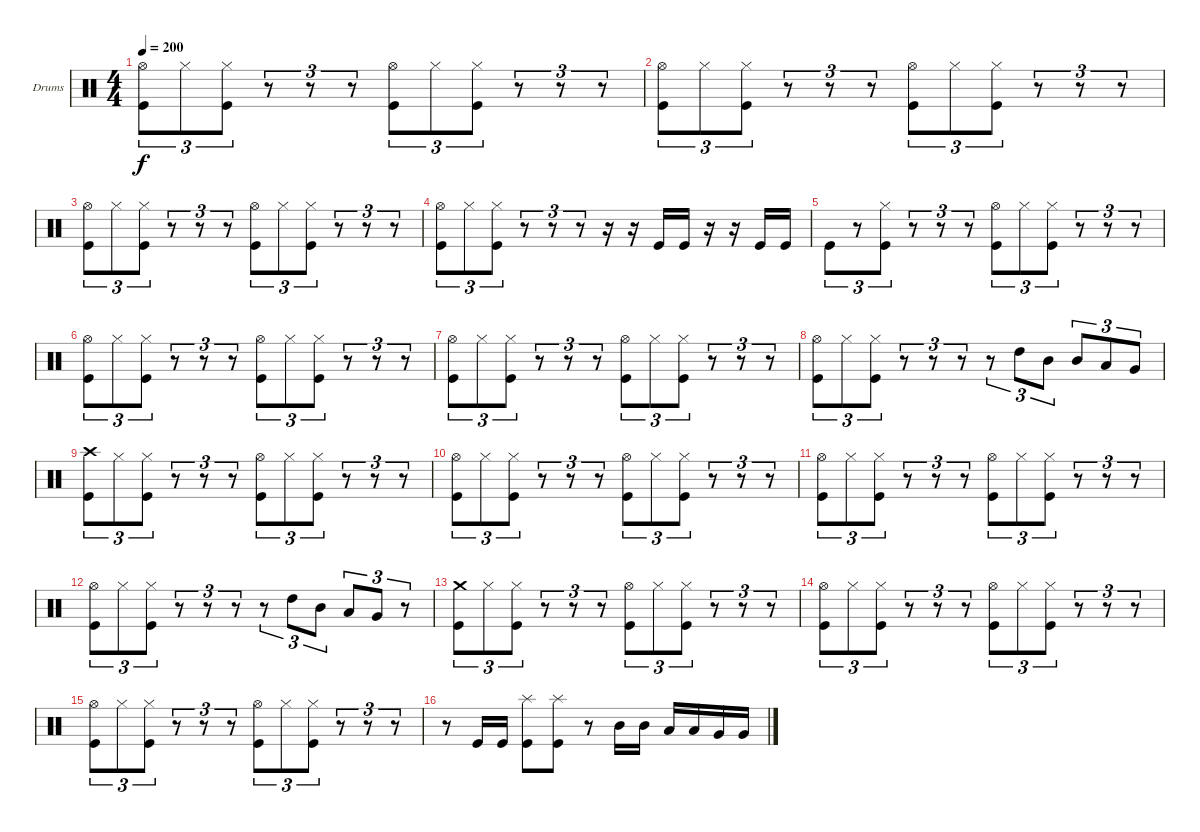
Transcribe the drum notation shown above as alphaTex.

\bracketExtendMode groupsimilarinstruments
\firstSystemTrackNameOrientation horizontal
\otherSystemsTrackNameOrientation horizontal
\track ("Drumkit" "Drums") {instrument percussion}
\staff {score}
\articulation defaults
\ts (4 4)
\tempo 200
\clef neutral
\scale
0.333333
\ks c
("Kick (hit)" "Hi-Hat (open)").8{tu (3 2) dy f} "Hi-Hat (closed)".8{tu (3 2)} ("Kick (hit)" "Hi-Hat (closed)").8{tu (3 2)} r.8{tu (3 2)} r.8{tu (3 2)} r.8{tu (3 2)} ("Kick (hit)" "Hi-Hat (open)").8{tu (3 2)} "Hi-Hat (closed)".8{tu (3 2)} ("Kick (hit)" "Hi-Hat (closed)").8{tu (3 2)} r.8{tu (3 2)} r.8{tu (3 2)} r.8{tu (3 2)} |
\scale
0.333333 ("Kick (hit)" "Hi-Hat (open)").8{tu (3 2)} "Hi-Hat (closed)".8{tu (3 2)} ("Kick (hit)" "Hi-Hat (closed)").8{tu (3 2)} r.8{tu (3 2)} r.8{tu (3 2)} r.8{tu (3 2)} ("Kick (hit)" "Hi-Hat (open)").8{tu (3 2)} "Hi-Hat (closed)".8{tu (3 2)} ("Kick (hit)" "Hi-Hat (closed)").8{tu (3 2)} r.8{tu (3 2)} r.8{tu (3 2)} r.8{tu (3 2)} |
\scale
0.333333 ("Kick (hit)" "Hi-Hat (open)").8{tu (3 2)} "Hi-Hat (closed)".8{tu (3 2)} ("Kick (hit)" "Hi-Hat (closed)").8{tu (3 2)} r.8{tu (3 2)} r.8{tu (3 2)} r.8{tu (3 2)} ("Kick (hit)" "Hi-Hat (open)").8{tu (3 2)} "Hi-Hat (closed)".8{tu (3 2)} ("Kick (hit)" "Hi-Hat (closed)").8{tu (3 2)} r.8{tu (3 2)} r.8{tu (3 2)} r.8{tu (3 2)} |
\scale
0.333333 ("Kick (hit)" "Hi-Hat (open)").8{tu (3 2)} "Hi-Hat (closed)".8{tu (3 2)} ("Kick (hit)" "Hi-Hat (closed)").8{tu (3 2)} r.8{tu (3 2)} r.8{tu (3 2)} r.8{tu (3 2)} r.16 r.16 "Kick (hit)".16 "Kick (hit)".16 r.16 r.16 "Kick (hit)".16 "Kick (hit)".16 |
\scale
0.333333 "Kick (hit)".8{tu (3 2)} r.8{tu (3 2)} ("Kick (hit)" "Hi-Hat (closed)").8{tu (3 2)} r.8{tu (3 2)} r.8{tu (3 2)} r.8{tu (3 2)} ("Kick (hit)" "Hi-Hat (open)").8{tu (3 2)} "Hi-Hat (closed)".8{tu (3 2)} ("Kick (hit)" "Hi-Hat (closed)").8{tu (3 2)} r.8{tu (3 2)} r.8{tu (3 2)} r.8{tu (3 2)} |
\scale
0.333333 ("Kick (hit)" "Hi-Hat (open)").8{tu (3 2)} "Hi-Hat (closed)".8{tu (3 2)} ("Kick (hit)" "Hi-Hat (closed)").8{tu (3 2)} r.8{tu (3 2)} r.8{tu (3 2)} r.8{tu (3 2)} ("Kick (hit)" "Hi-Hat (open)").8{tu (3 2)} "Hi-Hat (closed)".8{tu (3 2)} ("Kick (hit)" "Hi-Hat (closed)").8{tu (3 2)} r.8{tu (3 2)} r.8{tu (3 2)} r.8{tu (3 2)} |
\scale
0.333333 ("Kick (hit)" "Hi-Hat (open)").8{tu (3 2)} "Hi-Hat (closed)".8{tu (3 2)} ("Kick (hit)" "Hi-Hat (closed)").8{tu (3 2)} r.8{tu (3 2)} r.8{tu (3 2)} r.8{tu (3 2)} ("Kick (hit)" "Hi-Hat (open)").8{tu (3 2)} "Hi-Hat (closed)".8{tu (3 2)} ("Kick (hit)" "Hi-Hat (closed)").8{tu (3 2)} r.8{tu (3 2)} r.8{tu (3 2)} r.8{tu (3 2)} |
\scale
0.333333 ("Kick (hit)" "Hi-Hat (open)").8{tu (3 2)} "Hi-Hat (closed)".8{tu (3 2)} ("Kick (hit)" "Hi-Hat (closed)").8{tu (3 2)} r.8{tu (3 2)} r.8{tu (3 2)} r.8{tu (3 2)} r.8{tu (3 2)} "High Tom (hit)".8{tu (3 2)} "Mid Tom (hit)".8{tu (3 2)} "Mid Tom (hit)".8{tu (3 2)} "Low Tom (hit)".8{tu (3 2)} "Very Low Tom (hit)".8{tu (3 2)} |
\scale
0.333333 ("Kick (hit)" "Crash high (hit)").8{tu (3 2)} "Hi-Hat (closed)".8{tu (3 2)} ("Kick (hit)" "Hi-Hat (closed)").8{tu (3 2)} r.8{tu (3 2)} r.8{tu (3 2)} r.8{tu (3 2)} ("Kick (hit)" "Hi-Hat (open)").8{tu (3 2)} "Hi-Hat (closed)".8{tu (3 2)} ("Kick (hit)" "Hi-Hat (closed)").8{tu (3 2)} r.8{tu (3 2)} r.8{tu (3 2)} r.8{tu (3 2)} |
\scale
0.333333 ("Kick (hit)" "Hi-Hat (open)").8{tu (3 2)} "Hi-Hat (closed)".8{tu (3 2)} ("Kick (hit)" "Hi-Hat (closed)").8{tu (3 2)} r.8{tu (3 2)} r.8{tu (3 2)} r.8{tu (3 2)} ("Kick (hit)" "Hi-Hat (open)").8{tu (3 2)} "Hi-Hat (closed)".8{tu (3 2)} ("Kick (hit)" "Hi-Hat (closed)").8{tu (3 2)} r.8{tu (3 2)} r.8{tu (3 2)} r.8{tu (3 2)} |
\scale
0.333333 ("Kick (hit)" "Hi-Hat (open)").8{tu (3 2)} "Hi-Hat (closed)".8{tu (3 2)} ("Kick (hit)" "Hi-Hat (closed)").8{tu (3 2)} r.8{tu (3 2)} r.8{tu (3 2)} r.8{tu (3 2)} ("Kick (hit)" "Hi-Hat (open)").8{tu (3 2)} "Hi-Hat (closed)".8{tu (3 2)} ("Kick (hit)" "Hi-Hat (closed)").8{tu (3 2)} r.8{tu (3 2)} r.8{tu (3 2)} r.8{tu (3 2)} |
\scale
0.333333 ("Kick (hit)" "Hi-Hat (open)").8{tu (3 2)} "Hi-Hat (closed)".8{tu (3 2)} ("Kick (hit)" "Hi-Hat (closed)").8{tu (3 2)} r.8{tu (3 2)} r.8{tu (3 2)} r.8{tu (3 2)} r.8{tu (3 2)} "High Tom (hit)".8{tu (3 2)} "Mid Tom (hit)".8{tu (3 2)} "Low Tom (hit)".8{tu (3 2)} "Very Low Tom (hit)".8{tu (3 2)} r.8{tu (3 2)} |
\scale
0.333333 ("Kick (hit)" "Crash medium (hit)").8{tu (3 2)} "Hi-Hat (closed)".8{tu (3 2)} ("Kick (hit)" "Hi-Hat (closed)").8{tu (3 2)} r.8{tu (3 2)} r.8{tu (3 2)} r.8{tu (3 2)} ("Kick (hit)" "Hi-Hat (open)").8{tu (3 2)} "Hi-Hat (closed)".8{tu (3 2)} ("Kick (hit)" "Hi-Hat (closed)").8{tu (3 2)} r.8{tu (3 2)} r.8{tu (3 2)} r.8{tu (3 2)} |
\scale
0.333333 ("Kick (hit)" "Hi-Hat (open)").8{tu (3 2)} "Hi-Hat (closed)".8{tu (3 2)} ("Kick (hit)" "Hi-Hat (closed)").8{tu (3 2)} r.8{tu (3 2)} r.8{tu (3 2)} r.8{tu (3 2)} ("Kick (hit)" "Hi-Hat (open)").8{tu (3 2)} "Hi-Hat (closed)".8{tu (3 2)} ("Kick (hit)" "Hi-Hat (closed)").8{tu (3 2)} r.8{tu (3 2)} r.8{tu (3 2)} r.8{tu (3 2)} |
\scale
0.333333 ("Kick (hit)" "Hi-Hat (open)").8{tu (3 2)} "Hi-Hat (closed)".8{tu (3 2)} ("Kick (hit)" "Hi-Hat (closed)").8{tu (3 2)} r.8{tu (3 2)} r.8{tu (3 2)} r.8{tu (3 2)} ("Kick (hit)" "Hi-Hat (open)").8{tu (3 2)} "Hi-Hat (closed)".8{tu (3 2)} ("Kick (hit)" "Hi-Hat (closed)").8{tu (3 2)} r.8{tu (3 2)} r.8{tu (3 2)} r.8{tu (3 2)} |
\scale
0.333333 r.8 "Kick (hit)".16 "Kick (hit)".16 ("Kick (hit)" "Splash (hit)").8 ("Kick (hit)" "Splash (hit)").8 r.8 "Mid Tom (hit)".16 "Mid Tom (hit)".16 "Low Tom (hit)".16 "Low Tom (hit)".16 "Very Low Tom (hit)".16 "Very Low Tom (hit)".16
